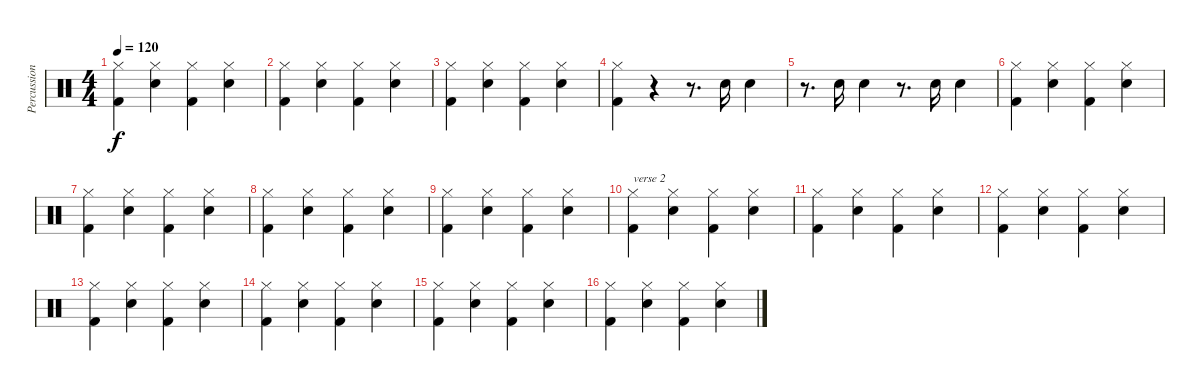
\track ("Percussions" "Percussion") {instrument percussion}
\staff {score}
\articulation defaults
\ts (4 4)
\tempo 120
\clef neutral
\ks c
("Hi-Hat (closed)" "Kick (hit) 2").4{dy f} ("Hi-Hat (closed)" "Electric Snare (hit)").4 ("Hi-Hat (closed)" "Kick (hit) 2").4 ("Hi-Hat (closed)" "Electric Snare (hit)").4 |
("Hi-Hat (closed)" "Kick (hit) 2").4 ("Hi-Hat (closed)" "Electric Snare (hit)").4 ("Hi-Hat (closed)" "Kick (hit) 2").4 ("Hi-Hat (closed)" "Electric Snare (hit)").4 |
("Hi-Hat (closed)" "Kick (hit) 2").4 ("Hi-Hat (closed)" "Electric Snare (hit)").4 ("Hi-Hat (closed)" "Kick (hit) 2").4 ("Hi-Hat (closed)" "Electric Snare (hit)").4 |
("Hi-Hat (closed)" "Kick (hit) 2").4 r.4 r.8{d} "Electric Snare (hit)".16 "Electric Snare (hit)".4 |
r.8{d} "Electric Snare (hit)".16 "Electric Snare (hit)".4 r.8{d} "Electric Snare (hit)".16 "Electric Snare (hit)".4 |
("Hi-Hat (closed)" "Kick (hit) 2").4 ("Hi-Hat (closed)" "Electric Snare (hit)").4 ("Hi-Hat (closed)" "Kick (hit) 2").4 ("Hi-Hat (closed)" "Electric Snare (hit)").4 |
("Hi-Hat (closed)" "Kick (hit) 2").4 ("Hi-Hat (closed)" "Electric Snare (hit)").4 ("Hi-Hat (closed)" "Kick (hit) 2").4 ("Hi-Hat (closed)" "Electric Snare (hit)").4 |
("Hi-Hat (closed)" "Kick (hit) 2").4 ("Hi-Hat (closed)" "Electric Snare (hit)").4 ("Hi-Hat (closed)" "Kick (hit) 2").4 ("Hi-Hat (closed)" "Electric Snare (hit)").4 |
("Hi-Hat (closed)" "Kick (hit) 2").4 ("Hi-Hat (closed)" "Electric Snare (hit)").4 ("Hi-Hat (closed)" "Kick (hit) 2").4 ("Hi-Hat (closed)" "Electric Snare (hit)").4 |
("Hi-Hat (closed)" "Kick (hit) 2").4{txt "verse 2"} ("Hi-Hat (closed)" "Electric Snare (hit)").4 ("Hi-Hat (closed)" "Kick (hit) 2").4 ("Hi-Hat (closed)" "Electric Snare (hit)").4 |
("Hi-Hat (closed)" "Kick (hit) 2").4 ("Hi-Hat (closed)" "Electric Snare (hit)").4 ("Hi-Hat (closed)" "Kick (hit) 2").4 ("Hi-Hat (closed)" "Electric Snare (hit)").4 |
("Hi-Hat (closed)" "Kick (hit) 2").4 ("Hi-Hat (closed)" "Electric Snare (hit)").4 ("Hi-Hat (closed)" "Kick (hit) 2").4 ("Hi-Hat (closed)" "Electric Snare (hit)").4 |
("Hi-Hat (closed)" "Kick (hit) 2").4 ("Hi-Hat (closed)" "Electric Snare (hit)").4 ("Hi-Hat (closed)" "Kick (hit) 2").4 ("Hi-Hat (closed)" "Electric Snare (hit)").4 |
("Hi-Hat (closed)" "Kick (hit) 2").4 ("Hi-Hat (closed)" "Electric Snare (hit)").4 ("Hi-Hat (closed)" "Kick (hit) 2").4 ("Hi-Hat (closed)" "Electric Snare (hit)").4 |
("Hi-Hat (closed)" "Kick (hit) 2").4 ("Hi-Hat (closed)" "Electric Snare (hit)").4 ("Hi-Hat (closed)" "Kick (hit) 2").4 ("Hi-Hat (closed)" "Electric Snare (hit)").4 |
("Hi-Hat (closed)" "Kick (hit) 2").4 ("Hi-Hat (closed)" "Electric Snare (hit)").4 ("Hi-Hat (closed)" "Kick (hit) 2").4 ("Hi-Hat (closed)" "Electric Snare (hit)").4
